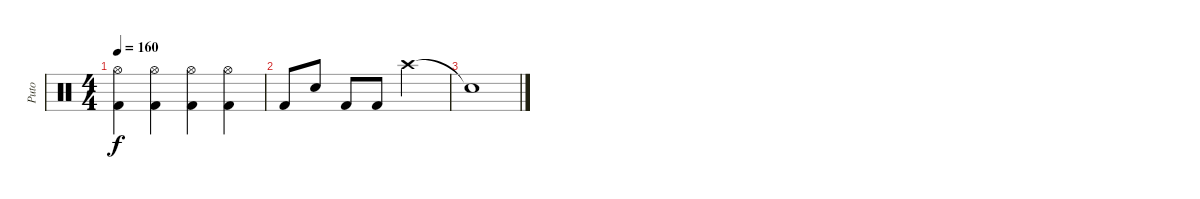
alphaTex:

\track ("Puto" "Puto") {instrument percussion}
\staff {score}
\articulation defaults
\ts (4 4)
\tempo 160
\clef neutral
\ks c
("Hi-Hat (open)" "Kick (hit) 2").4{dy f} ("Hi-Hat (open)" "Kick (hit) 2").4 ("Hi-Hat (open)" "Kick (hit) 2").4 ("Hi-Hat (open)" "Kick (hit) 2").4 |
"Kick (hit) 2".8 "Electric Snare (hit)".8 "Kick (hit) 2".8 "Kick (hit) 2".8 "Crash high (hit)".2 |
"Snare (hit)"{t}.1
